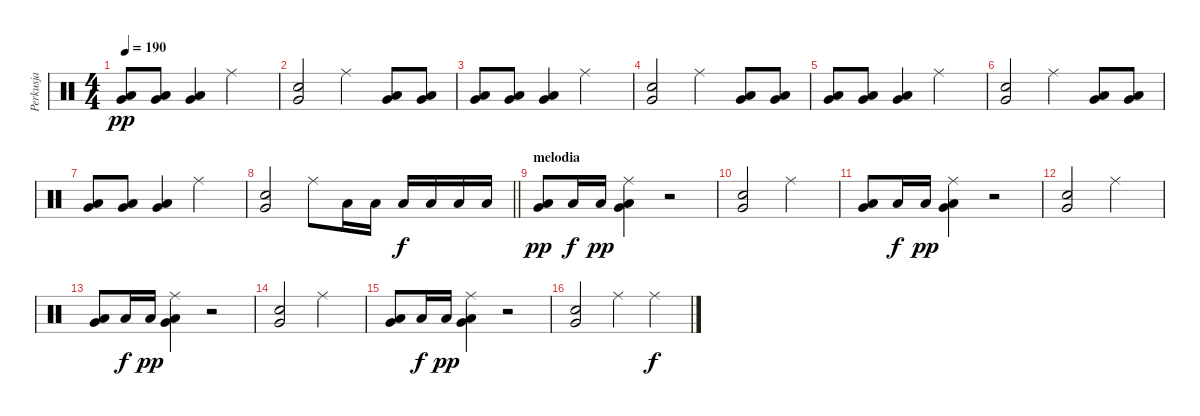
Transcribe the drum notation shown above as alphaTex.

\track ("Perkusja" "Perkusja") {instrument percussion}
\staff {score}
\articulation defaults
\ts (4 4)
\tempo 190
\clef neutral
\ks c
("Very Low Tom (hit)" "Low Floor Tom (hit)").8{dy pp} ("Very Low Tom (hit)" "Low Floor Tom (hit)").8 ("Very Low Tom (hit)" "Low Floor Tom (hit)").4 "Ride (middle)".2 |
("Snare (hit) 2" "Very Low Tom (hit)").2 "Ride (middle)".4 ("Very Low Tom (hit)" "Low Floor Tom (hit)").8 ("Very Low Tom (hit)" "Low Floor Tom (hit)").8 |
("Very Low Tom (hit)" "Low Floor Tom (hit)").8 ("Very Low Tom (hit)" "Low Floor Tom (hit)").8 ("Very Low Tom (hit)" "Low Floor Tom (hit)").4 "Ride (middle)".2 |
("Snare (hit) 2" "Very Low Tom (hit)").2 "Ride (middle)".4 ("Very Low Tom (hit)" "Low Floor Tom (hit)").8 ("Very Low Tom (hit)" "Low Floor Tom (hit)").8 |
("Very Low Tom (hit)" "Low Floor Tom (hit)").8 ("Very Low Tom (hit)" "Low Floor Tom (hit)").8 ("Very Low Tom (hit)" "Low Floor Tom (hit)").4 "Ride (middle)".2 |
("Snare (hit) 2" "Very Low Tom (hit)").2 "Ride (middle)".4 ("Very Low Tom (hit)" "Low Floor Tom (hit)").8 ("Very Low Tom (hit)" "Low Floor Tom (hit)").8 |
("Very Low Tom (hit)" "Low Floor Tom (hit)").8 ("Very Low Tom (hit)" "Low Floor Tom (hit)").8 ("Very Low Tom (hit)" "Low Floor Tom (hit)").4 "Ride (middle)".2 |
\barLineRight lightlight
("Snare (hit) 2" "Very Low Tom (hit)").2 "Ride (middle)".8 "Low Floor Tom (hit)".16 "Low Floor Tom (hit)".16 "Low Floor Tom (hit)".16{dy f} "Low Floor Tom (hit)".16 "Low Floor Tom (hit)".16 "Low Floor Tom (hit)".16 |
\section ("" "melodia")
("Very Low Tom (hit)" "Low Floor Tom (hit)").8{dy pp} "Low Floor Tom (hit)".16{dy f} "Low Floor Tom (hit)".16{dy pp} ("Ride (middle)" "Very Low Tom (hit)" "Low Floor Tom (hit)").4 r.2 |
("Snare (hit) 2" "Very Low Tom (hit)").2 "Ride (middle)".2 |
("Very Low Tom (hit)" "Low Floor Tom (hit)").8 "Low Floor Tom (hit)".16{dy f} "Low Floor Tom (hit)".16{dy pp} ("Ride (middle)" "Very Low Tom (hit)" "Low Floor Tom (hit)").4 r.2 |
("Snare (hit) 2" "Very Low Tom (hit)").2 "Ride (middle)".2 |
("Very Low Tom (hit)" "Low Floor Tom (hit)").8 "Low Floor Tom (hit)".16{dy f} "Low Floor Tom (hit)".16{dy pp} ("Ride (middle)" "Very Low Tom (hit)" "Low Floor Tom (hit)").4 r.2 |
("Snare (hit) 2" "Very Low Tom (hit)").2 "Ride (middle)".2 |
("Very Low Tom (hit)" "Low Floor Tom (hit)").8 "Low Floor Tom (hit)".16{dy f} "Low Floor Tom (hit)".16{dy pp} ("Ride (middle)" "Very Low Tom (hit)" "Low Floor Tom (hit)").4 r.2 |
("Snare (hit) 2" "Very Low Tom (hit)").2 "Ride (middle)".4 "Ride (middle)".4{dy f}
